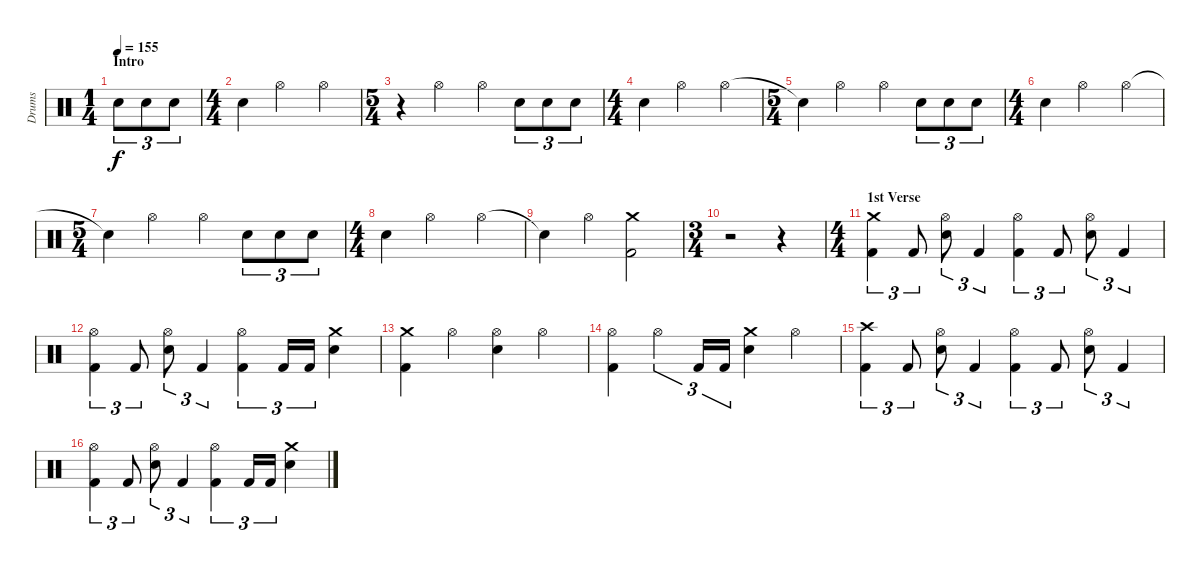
\track ("Drums" "Drums") {instrument percussion}
\staff {score}
\articulation defaults
\ts (1 4)
\section ("" "Intro")
\tempo 155
\clef neutral
\ks c "Electric Snare (hit)".8{tu (3 2) dy f} "Electric Snare (hit)".8{tu (3 2)} "Electric Snare (hit)".8{tu (3 2)}
|
\ts (4 4)
"Electric Snare (hit)".4 "Hi-Hat (open)".2 "Hi-Hat (open)".4 |
\ts (5 4)
r.4 "Hi-Hat (open)".2 "Hi-Hat (open)".4 "Electric Snare (hit)".8{tu (3 2)} "Electric Snare (hit)".8{tu (3 2)} "Electric Snare (hit)".8{tu (3 2)} |
\ts (4 4)
"Electric Snare (hit)".4 "Hi-Hat (open)".2 "Hi-Hat (open)".4 |
\ts (5 4)
"Snare (hit)"{t}.4 "Hi-Hat (open)".2 "Hi-Hat (open)".4 "Electric Snare (hit)".8{tu (3 2)} "Electric Snare (hit)".8{tu (3 2)} "Electric Snare (hit)".8{tu (3 2)} |
\ts (4 4)
"Electric Snare (hit)".4 "Hi-Hat (open)".2 "Hi-Hat (open)".4 |
\ts (5 4)
"Snare (hit)"{t}.4 "Hi-Hat (open)".2 "Hi-Hat (open)".4 "Electric Snare (hit)".8{tu (3 2)} "Electric Snare (hit)".8{tu (3 2)} "Electric Snare (hit)".8{tu (3 2)} |
\ts (4 4)
"Electric Snare (hit)".4 "Hi-Hat (open)".2 "Hi-Hat (open)".4 |
"Snare (hit)"{t}.4 "Hi-Hat (open)".4 ("Kick (hit) 2" "Crash medium (hit)").2 |
\ts (3 4)
r.2 r.4 |
\ts (4 4)
\section ("" "1st Verse")
("Kick (hit) 2" "Crash medium (hit)").4{tu (3 2)} "Kick (hit) 2".8{tu (3 2)} ("Electric Snare (hit)" "Hi-Hat (open)").8{tu (3 2)} "Kick (hit) 2".4{tu (3 2)} ("Kick (hit) 2" "Hi-Hat (open)").4{tu (3 2)} "Kick (hit) 2".8{tu (3 2)} ("Electric Snare (hit)" "Hi-Hat (open)").8{tu (3 2)} "Kick (hit) 2".4{tu (3 2)} |
("Kick (hit) 2" "Hi-Hat (open)").4{tu (3 2)} "Kick (hit) 2".8{tu (3 2)} ("Electric Snare (hit)" "Hi-Hat (open)").8{tu (3 2)} "Kick (hit) 2".4{tu (3 2)} ("Kick (hit) 2" "Hi-Hat (open)").4{tu (3 2)} "Kick (hit) 2".16{tu (3 2)} "Kick (hit) 2".16{tu (3 2)} ("Electric Snare (hit)" "Crash medium (hit)").4 |
("Kick (hit) 2" "Crash medium (hit)").4 "Hi-Hat (open)".4 ("Electric Snare (hit)" "Hi-Hat (open)").4 "Hi-Hat (open)".4 |
("Kick (hit) 2" "Hi-Hat (open)").4 "Hi-Hat (open)".4{tu (3 2)} "Kick (hit) 2".16{tu (3 2)} "Kick (hit) 2".16{tu (3 2)} ("Electric Snare (hit)" "Crash medium (hit)").4 "Hi-Hat (open)".4 |
("Kick (hit) 2" "Crash high (hit)").4{tu (3 2)} "Kick (hit) 2".8{tu (3 2)} ("Electric Snare (hit)" "Hi-Hat (open)").8{tu (3 2)} "Kick (hit) 2".4{tu (3 2)} ("Kick (hit) 2" "Hi-Hat (open)").4{tu (3 2)} "Kick (hit) 2".8{tu (3 2)} ("Electric Snare (hit)" "Hi-Hat (open)").8{tu (3 2)} "Kick (hit) 2".4{tu (3 2)} |
("Kick (hit) 2" "Hi-Hat (open)").4{tu (3 2)} "Kick (hit) 2".8{tu (3 2)} ("Electric Snare (hit)" "Hi-Hat (open)").8{tu (3 2)} "Kick (hit) 2".4{tu (3 2)} ("Kick (hit) 2" "Hi-Hat (open)").4{tu (3 2)} "Kick (hit) 2".16{tu (3 2)} "Kick (hit) 2".16{tu (3 2)} ("Electric Snare (hit)" "Crash medium (hit)").4
